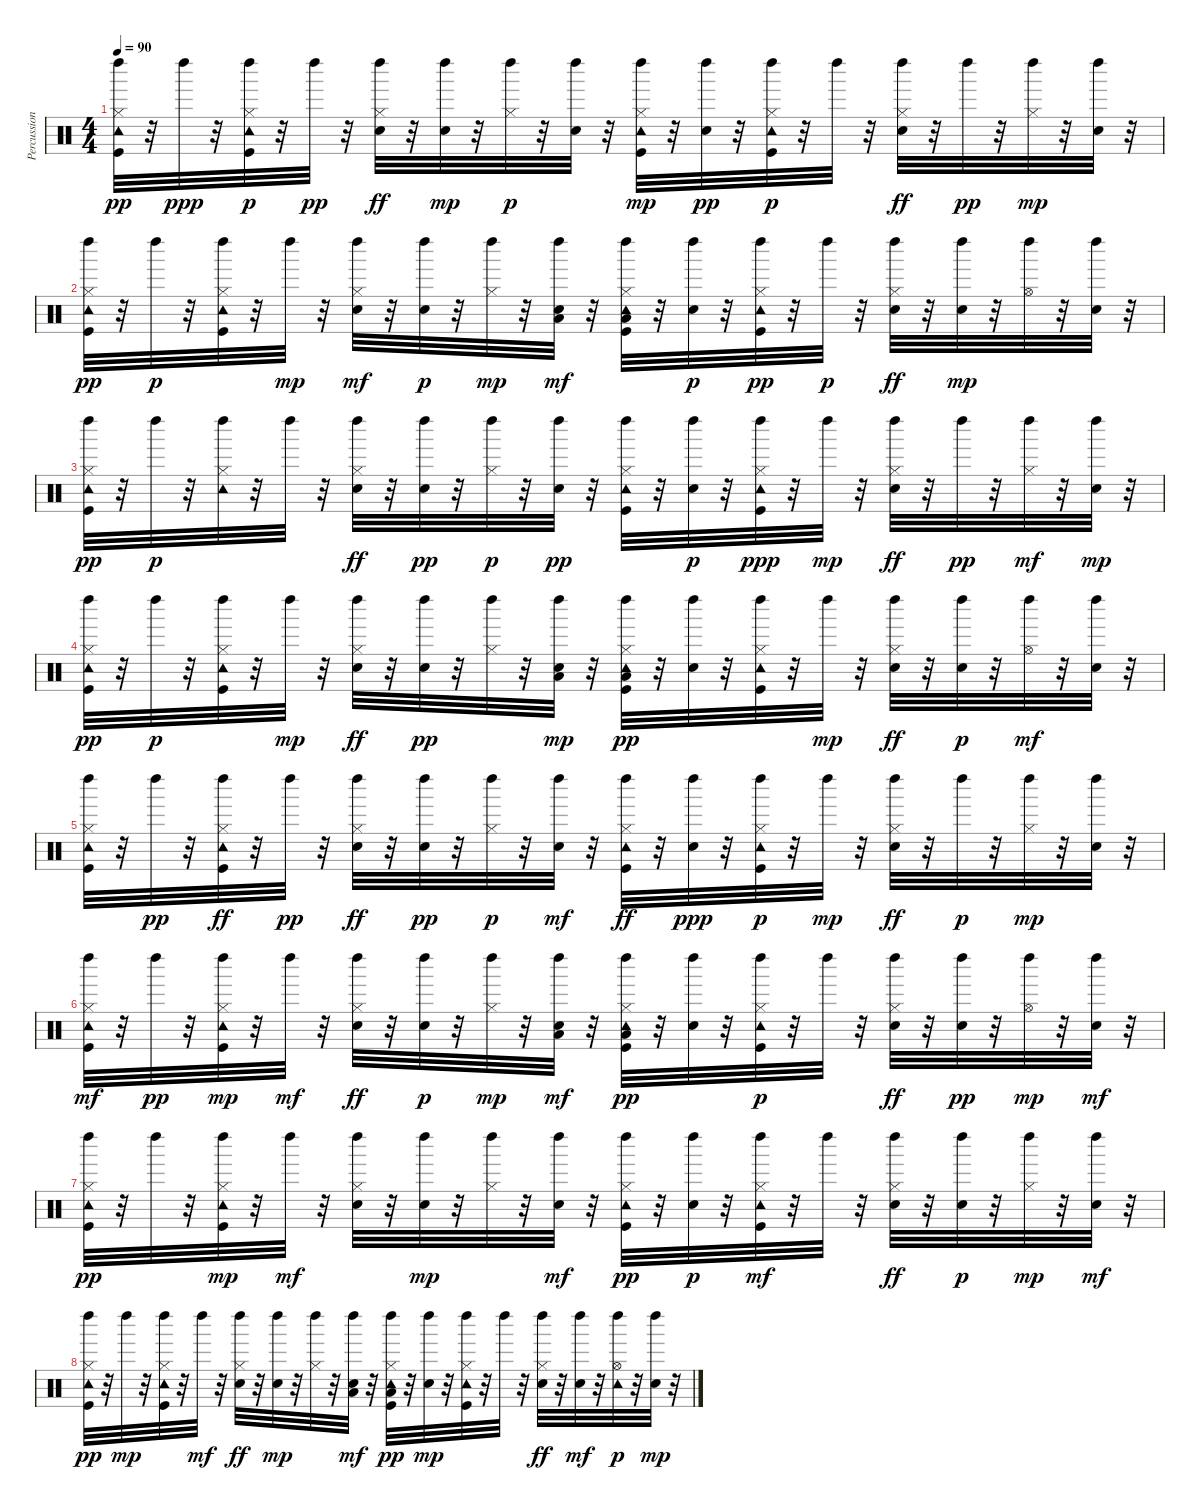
\track ("Percussions" "Percussion") {instrument percussion}
\staff {score}
\articulation defaults
\ts (4 4)
\tempo 90
\clef neutral
\ks c
("Left Maraca (hit)" "Kick (hit)" "Hi-Hat (closed)" "Tambourine (hit)").32{dy pp} r.32 "Left Maraca (hit)".32{dy ppp} r.32 ("Left Maraca (hit)" "Hi-Hat (closed)" "Kick (hit)" "Tambourine (hit)").32{dy p} r.32 "Left Maraca (hit)".32{dy pp} r.32 ("Left Maraca (hit)" "Hi-Hat (closed)" "Electric Snare (hit)").32{dy ff} r.32 ("Left Maraca (hit)" "Electric Snare (hit)").32{dy mp} r.32 ("Hi-Hat (closed)" "Left Maraca (hit)").32{dy p} r.32 ("Electric Snare (hit)" "Left Maraca (hit)").32 r.32 ("Hi-Hat (closed)" "Kick (hit)" "Tambourine (hit)" "Left Maraca (hit)").32{dy mp} r.32 ("Electric Snare (hit)" "Left Maraca (hit)").32{dy pp} r.32 ("Left Maraca (hit)" "Hi-Hat (closed)" "Kick (hit)" "Tambourine (hit)").32{dy p} r.32 "Left Maraca (hit)".32 r.32 ("Electric Snare (hit)" "Left Maraca (hit)" "Hi-Hat (closed)").32{dy ff} r.32 "Left Maraca (hit)".32{dy pp} r.32 ("Hi-Hat (closed)" "Left Maraca (hit)").32{dy mp} r.32 ("Electric Snare (hit)" "Left Maraca (hit)").32 r.32 |
("Kick (hit)" "Left Maraca (hit)" "Hi-Hat (closed)" "Tambourine (hit)").32{dy pp} r.32 "Left Maraca (hit)".32{dy p} r.32 ("Hi-Hat (closed)" "Left Maraca (hit)" "Kick (hit)" "Tambourine (hit)").32 r.32 "Left Maraca (hit)".32{dy mp} r.32 ("Hi-Hat (closed)" "Electric Snare (hit)" "Left Maraca (hit)").32{dy mf} r.32 ("Electric Snare (hit)" "Left Maraca (hit)").32{dy p} r.32 ("Hi-Hat (closed)" "Left Maraca (hit)").32{dy mp} r.32 ("Electric Snare (hit)" "Left Maraca (hit)" "Low Tom (hit)").32{dy mf} r.32 ("Hi-Hat (closed)" "Tambourine (hit)" "Kick (hit)" "Low Floor Tom (hit)" "Left Maraca (hit)").32 r.32 ("Electric Snare (hit)" "Left Maraca (hit)").32{dy p} r.32 ("Hi-Hat (closed)" "Tambourine (hit)" "Left Maraca (hit)" "Kick (hit)").32{dy pp} r.32 "Left Maraca (hit)".32{dy p} r.32 ("Left Maraca (hit)" "Hi-Hat (closed)" "Electric Snare (hit)").32{dy ff} r.32 ("Left Maraca (hit)" "Electric Snare (hit)").32{dy mp} r.32 ("Hi-Hat (open)" "Left Maraca (hit)").32 r.32 ("Left Maraca (hit)" "Electric Snare (hit)").32 r.32 |
("Left Maraca (hit)" "Kick (hit)" "Hi-Hat (closed)" "Tambourine (hit)").32{dy pp} r.32 "Left Maraca (hit)".32{dy p} r.32 ("Hi-Hat (closed)" "Left Maraca (hit)" "Tambourine (hit)").32 r.32 "Left Maraca (hit)".32 r.32 ("Hi-Hat (closed)" "Left Maraca (hit)" "Electric Snare (hit)").32{dy ff} r.32 ("Electric Snare (hit)" "Left Maraca (hit)").32{dy pp} r.32 ("Hi-Hat (closed)" "Left Maraca (hit)").32{dy p} r.32 ("Electric Snare (hit)" "Left Maraca (hit)").32{dy pp} r.32 ("Hi-Hat (closed)" "Kick (hit)" "Tambourine (hit)" "Left Maraca (hit)").32 r.32 ("Electric Snare (hit)" "Left Maraca (hit)").32{dy p} r.32 ("Tambourine (hit)" "Kick (hit)" "Hi-Hat (closed)" "Left Maraca (hit)").32{dy ppp} r.32 "Left Maraca (hit)".32{dy mp} r.32 ("Left Maraca (hit)" "Hi-Hat (closed)" "Electric Snare (hit)").32{dy ff} r.32 "Left Maraca (hit)".32{dy pp} r.32 ("Left Maraca (hit)" "Hi-Hat (closed)").32{dy mf} r.32 ("Left Maraca (hit)" "Electric Snare (hit)").32{dy mp} r.32 |
("Left Maraca (hit)" "Hi-Hat (closed)" "Kick (hit)" "Tambourine (hit)").32{dy pp} r.32 "Left Maraca (hit)".32{dy p} r.32 ("Kick (hit)" "Left Maraca (hit)" "Hi-Hat (closed)" "Tambourine (hit)").32 r.32 "Left Maraca (hit)".32{dy mp} r.32 ("Electric Snare (hit)" "Left Maraca (hit)" "Hi-Hat (closed)").32{dy ff} r.32 ("Electric Snare (hit)" "Left Maraca (hit)").32{dy pp} r.32 ("Hi-Hat (closed)" "Left Maraca (hit)").32 r.32 ("Electric Snare (hit)" "Left Maraca (hit)" "Low Tom (hit)").32{dy mp} r.32 ("Kick (hit)" "Low Floor Tom (hit)" "Left Maraca (hit)" "Hi-Hat (closed)" "Tambourine (hit)").32{dy pp} r.32 ("Electric Snare (hit)" "Left Maraca (hit)").32 r.32 ("Hi-Hat (closed)" "Kick (hit)" "Tambourine (hit)" "Left Maraca (hit)").32 r.32 "Left Maraca (hit)".32{dy mp} r.32 ("Electric Snare (hit)" "Hi-Hat (closed)" "Left Maraca (hit)").32{dy ff} r.32 ("Electric Snare (hit)" "Left Maraca (hit)").32{dy p} r.32 ("Hi-Hat (open)" "Left Maraca (hit)").32{dy mf} r.32 ("Electric Snare (hit)" "Left Maraca (hit)").32 r.32 |
("Hi-Hat (closed)" "Kick (hit)" "Tambourine (hit)" "Left Maraca (hit)").32 r.32 "Left Maraca (hit)".32{dy pp} r.32 ("Hi-Hat (closed)" "Tambourine (hit)" "Left Maraca (hit)" "Kick (hit)").32{dy ff} r.32 "Left Maraca (hit)".32{dy pp} r.32 ("Electric Snare (hit)" "Left Maraca (hit)" "Hi-Hat (closed)").32{dy ff} r.32 ("Electric Snare (hit)" "Left Maraca (hit)").32{dy pp} r.32 ("Hi-Hat (closed)" "Left Maraca (hit)").32{dy p} r.32 ("Electric Snare (hit)" "Left Maraca (hit)").32{dy mf} r.32 ("Hi-Hat (closed)" "Tambourine (hit)" "Kick (hit)" "Left Maraca (hit)").32{dy ff} r.32 ("Electric Snare (hit)" "Left Maraca (hit)").32{dy ppp} r.32 ("Hi-Hat (closed)" "Kick (hit)" "Tambourine (hit)" "Left Maraca (hit)").32{dy p} r.32 "Left Maraca (hit)".32{dy mp} r.32 ("Electric Snare (hit)" "Hi-Hat (closed)" "Left Maraca (hit)").32{dy ff} r.32 "Left Maraca (hit)".32{dy p} r.32 ("Hi-Hat (closed)" "Left Maraca (hit)").32{dy mp} r.32 ("Left Maraca (hit)" "Electric Snare (hit)").32 r.32 |
("Hi-Hat (closed)" "Kick (hit)" "Tambourine (hit)" "Left Maraca (hit)").32{dy mf} r.32 "Left Maraca (hit)".32{dy pp} r.32 ("Kick (hit)" "Hi-Hat (closed)" "Tambourine (hit)" "Left Maraca (hit)").32{dy mp} r.32 "Left Maraca (hit)".32{dy mf} r.32 ("Left Maraca (hit)" "Hi-Hat (closed)" "Electric Snare (hit)").32{dy ff} r.32 ("Electric Snare (hit)" "Left Maraca (hit)").32{dy p} r.32 ("Left Maraca (hit)" "Hi-Hat (closed)").32{dy mp} r.32 ("Electric Snare (hit)" "Left Maraca (hit)" "Low Tom (hit)").32{dy mf} r.32 ("Hi-Hat (closed)" "Left Maraca (hit)" "Kick (hit)" "Low Floor Tom (hit)" "Tambourine (hit)").32{dy pp} r.32 ("Electric Snare (hit)" "Left Maraca (hit)").32 r.32 ("Hi-Hat (closed)" "Kick (hit)" "Left Maraca (hit)" "Tambourine (hit)").32{dy p} r.32 "Left Maraca (hit)".32 r.32 ("Electric Snare (hit)" "Left Maraca (hit)" "Hi-Hat (closed)").32{dy ff} r.32 ("Electric Snare (hit)" "Left Maraca (hit)").32{dy pp} r.32 ("Hi-Hat (open)" "Left Maraca (hit)").32{dy mp} r.32 ("Electric Snare (hit)" "Left Maraca (hit)").32{dy mf} r.32 |
("Hi-Hat (closed)" "Left Maraca (hit)" "Kick (hit)" "Tambourine (hit)").32{dy pp} r.32 "Left Maraca (hit)".32 r.32 ("Hi-Hat (closed)" "Kick (hit)" "Tambourine (hit)" "Left Maraca (hit)").32{dy mp} r.32 "Left Maraca (hit)".32{dy mf} r.32 ("Electric Snare (hit)" "Hi-Hat (closed)" "Left Maraca (hit)").32 r.32 ("Electric Snare (hit)" "Left Maraca (hit)").32{dy mp} r.32 ("Hi-Hat (closed)" "Left Maraca (hit)").32 r.32 ("Electric Snare (hit)" "Left Maraca (hit)").32{dy mf} r.32 ("Kick (hit)" "Hi-Hat (closed)" "Tambourine (hit)" "Left Maraca (hit)").32{dy pp} r.32 ("Electric Snare (hit)" "Left Maraca (hit)").32{dy p} r.32 ("Hi-Hat (closed)" "Kick (hit)" "Tambourine (hit)" "Left Maraca (hit)").32{dy mf} r.32 "Left Maraca (hit)".32 r.32 ("Electric Snare (hit)" "Hi-Hat (closed)" "Left Maraca (hit)").32{dy ff} r.32 ("Electric Snare (hit)" "Left Maraca (hit)").32{dy p} r.32 ("Hi-Hat (closed)" "Left Maraca (hit)").32{dy mp} r.32 ("Electric Snare (hit)" "Left Maraca (hit)").32{dy mf} r.32 |
("Hi-Hat (closed)" "Kick (hit)" "Tambourine (hit)" "Left Maraca (hit)").32{dy pp} r.32 "Left Maraca (hit)".32{dy mp} r.32 ("Tambourine (hit)" "Kick (hit)" "Hi-Hat (closed)" "Left Maraca (hit)").32 r.32 "Left Maraca (hit)".32{dy mf} r.32 ("Electric Snare (hit)" "Hi-Hat (closed)" "Left Maraca (hit)").32{dy ff} r.32 ("Electric Snare (hit)" "Left Maraca (hit)").32{dy mp} r.32 ("Hi-Hat (closed)" "Left Maraca (hit)").32 r.32 ("Electric Snare (hit)" "Left Maraca (hit)" "Low Tom (hit)").32{dy mf} r.32 ("Hi-Hat (closed)" "Kick (hit)" "Low Floor Tom (hit)" "Tambourine (hit)" "Left Maraca (hit)").32{dy pp} r.32 ("Left Maraca (hit)" "Electric Snare (hit)").32{dy mp} r.32 ("Hi-Hat (closed)" "Kick (hit)" "Tambourine (hit)" "Left Maraca (hit)").32 r.32 "Left Maraca (hit)".32 r.32 ("Hi-Hat (closed)" "Electric Snare (hit)" "Left Maraca (hit)").32{dy ff} r.32 ("Electric Snare (hit)" "Left Maraca (hit)").32{dy mf} r.32 ("Hi-Hat (open)" "Left Maraca (hit)" "Tambourine (hit)").32{dy p} r.32 ("Electric Snare (hit)" "Left Maraca (hit)").32{dy mp} r.32
